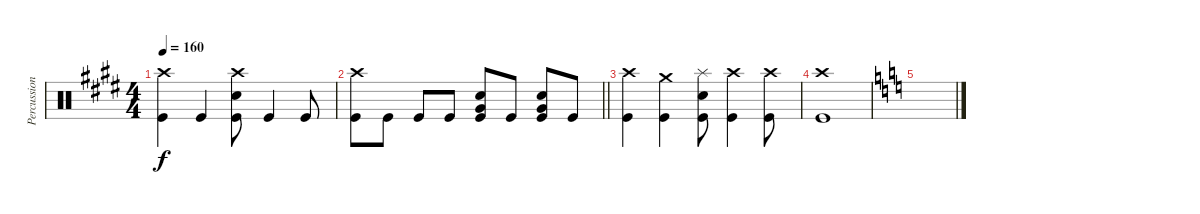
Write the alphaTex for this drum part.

\track ("Percussion" "Percussion") {instrument percussion}
\staff {score}
\articulation defaults
\ts (4 4)
\tempo 160
\clef neutral
\ks e
("Crash high (hit)" "Kick (hit)").4{dy f} "Kick (hit)".4 ("Crash high (hit)" "Electric Snare (hit)" "Kick (hit)").8 "Kick (hit)".4 "Kick (hit)".8 |
\barLineRight lightlight
("Crash high (hit)" "Kick (hit)").8 "Kick (hit)".8 "Kick (hit)".8 "Kick (hit)".8 ("Electric Snare (hit)" "Very Low Tom (hit)" "Kick (hit)").8 "Kick (hit)".8 ("Electric Snare (hit)" "Very Low Tom (hit)" "Kick (hit)").8 "Kick (hit)".8 |
\section ("" "")
("Crash high (hit)" "Kick (hit)").4 ("Crash medium (hit)" "Kick (hit)").4 ("Splash (hit)" "Electric Snare (hit)" "Kick (hit)").8 ("Crash high (hit)" "Kick (hit)").4 ("Crash high (hit)" "Kick (hit)").8 |
("Crash high (hit)" "Kick (hit)").1 |
\ks c
